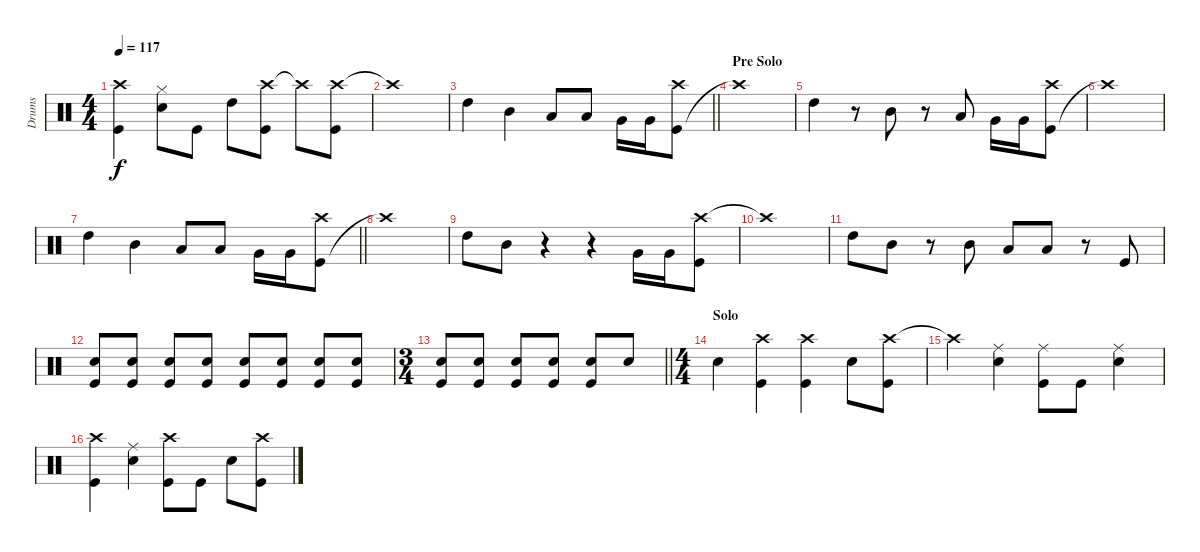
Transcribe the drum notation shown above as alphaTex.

\track ("Drums" "Drums") {instrument percussion}
\staff {score}
\articulation defaults
\ts (4 4)
\tempo 117
\clef neutral
\ks c
("Crash high (hit)" "Kick (hit)").4{dy f} ("Hi-Hat (closed)" "Snare (hit) 2").8 "Kick (hit)".8 "High Tom (hit)".8 ("Crash high (hit)" "Kick (hit)").8 "Crash high (hit)"{t}.8 ("Crash high (hit)" "Kick (hit)").8 |
"Crash high (hit)"{t}.1 |
\barLineRight lightlight "High Tom (hit)".4 "Mid Tom (hit)".4 "Low Tom (hit)".8 "Low Tom (hit)".8 "Very Low Tom (hit)".16 "Very Low Tom (hit)".16
("Kick (hit)" "Crash high (hit)").8 |
\section ("" "Pre Solo")
"Crash high (hit)"{t}.1 |
"High Tom (hit)".4 r.8 "Mid Tom (hit)".8 r.8 "Low Tom (hit)".8 "Very Low Tom (hit)".16 "Very Low Tom (hit)".16 ("Kick (hit)" "Crash high (hit)").8 |
"Crash high (hit)"{t}.1 |
\barLineRight lightlight "High Tom (hit)".4 "Mid Tom (hit)".4 "Low Tom (hit)".8 "Low Tom (hit)".8 "Very Low Tom (hit)".16 "Very Low Tom (hit)".16
("Kick (hit)" "Crash high (hit)").8 |
"Crash high (hit)"{t}.1 |
"High Tom (hit)".8 "Mid Tom (hit)".8 r.4 r.4 "Very Low Tom (hit)".16 "Very Low Tom (hit)".16 ("Crash high (hit)" "Kick (hit)").8 |
"Crash high (hit)"{t}.1 |
"High Tom (hit)".8 "Mid Tom (hit)".8 r.8 "Mid Tom (hit)".8 "Low Tom (hit)".8 "Low Tom (hit)".8 r.8 "Kick (hit)".8 |
("Snare (hit) 2" "Kick (hit)").8 ("Snare (hit) 2" "Kick (hit)").8 ("Snare (hit) 2" "Kick (hit)").8 ("Snare (hit) 2" "Kick (hit)").8 ("Snare (hit) 2" "Kick (hit)").8 ("Snare (hit) 2" "Kick (hit)").8 ("Snare (hit) 2" "Kick (hit)").8 ("Snare (hit) 2" "Kick (hit)").8 |
\ts (3 4)
\barLineRight lightlight
("Snare (hit) 2" "Kick (hit)").8 ("Snare (hit) 2" "Kick (hit)").8 ("Snare (hit) 2" "Kick (hit)").8 ("Snare (hit) 2" "Kick (hit)").8 ("Snare (hit) 2" "Kick (hit)").8 "Snare (hit) 2".8 |
\ts (4 4)
\section ("" "Solo")
"Snare (hit) 2".4 ("Crash high (hit)" "Kick (hit)").4 ("Crash high (hit)" "Kick (hit)").4 "Snare (hit) 2".8 ("Crash high (hit)" "Kick (hit)").8 |
"Crash high (hit)"{t}.4 ("Ride (middle)" "Snare (hit) 2").4 ("Ride (middle)" "Kick (hit)").8 "Kick (hit)".8 ("Ride (middle)" "Snare (hit) 2").4 |
("Crash high (hit)" "Kick (hit)").4 ("Snare (hit) 2" "Ride (middle)").4 ("Kick (hit)" "Crash high (hit)").8 "Kick (hit)".8 "Snare (hit) 2".8 ("Crash high (hit)" "Kick (hit)").8
